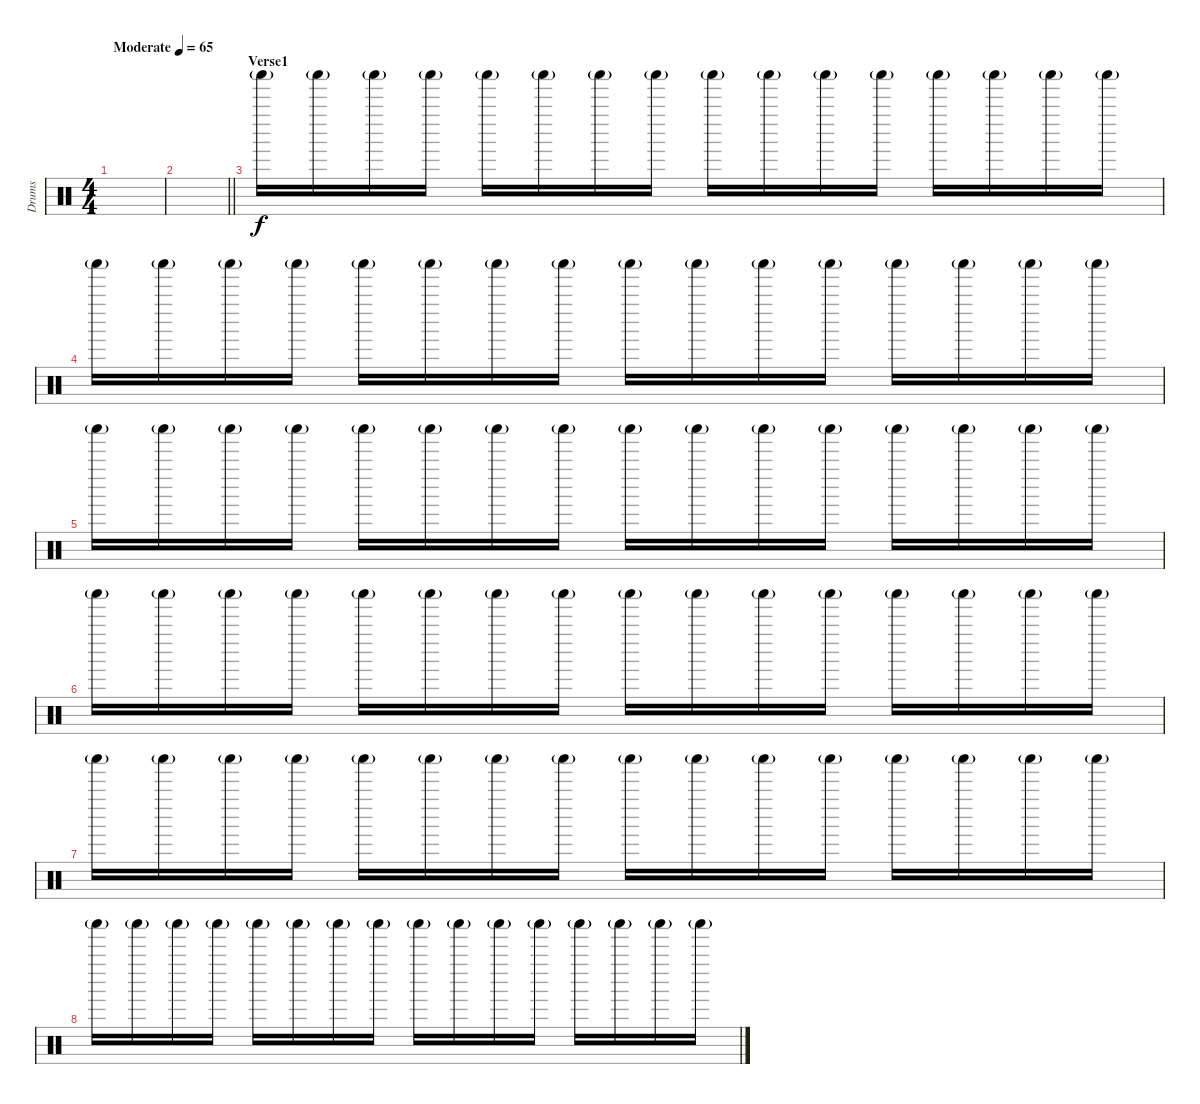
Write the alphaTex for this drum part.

\track ("Drums" "Drums") {instrument percussion}
\staff {score}
\articulation defaults
\ts (4 4)
\tempo (65 "Moderate")
\clef neutral
\ks c
|
\barLineRight lightlight
|
\section ("" "Verse1")
"Shaker (hit)"{g}.16 "Shaker (hit)"{g}.16 "Shaker (hit)"{g}.16 "Shaker (hit)"{g}.16 "Shaker (hit)"{g}.16 "Shaker (hit)"{g}.16 "Shaker (hit)"{g}.16 "Shaker (hit)"{g}.16 "Shaker (hit)"{g}.16 "Shaker (hit)"{g}.16 "Shaker (hit)"{g}.16 "Shaker (hit)"{g}.16 "Shaker (hit)"{g}.16 "Shaker (hit)"{g}.16 "Shaker (hit)"{g}.16 "Shaker (hit)"{g}.16 |
"Shaker (hit)"{g}.16 "Shaker (hit)"{g}.16 "Shaker (hit)"{g}.16 "Shaker (hit)"{g}.16 "Shaker (hit)"{g}.16 "Shaker (hit)"{g}.16 "Shaker (hit)"{g}.16 "Shaker (hit)"{g}.16 "Shaker (hit)"{g}.16 "Shaker (hit)"{g}.16 "Shaker (hit)"{g}.16 "Shaker (hit)"{g}.16 "Shaker (hit)"{g}.16 "Shaker (hit)"{g}.16 "Shaker (hit)"{g}.16 "Shaker (hit)"{g}.16 |
"Shaker (hit)"{g}.16 "Shaker (hit)"{g}.16 "Shaker (hit)"{g}.16 "Shaker (hit)"{g}.16 "Shaker (hit)"{g}.16 "Shaker (hit)"{g}.16 "Shaker (hit)"{g}.16 "Shaker (hit)"{g}.16 "Shaker (hit)"{g}.16 "Shaker (hit)"{g}.16 "Shaker (hit)"{g}.16 "Shaker (hit)"{g}.16 "Shaker (hit)"{g}.16 "Shaker (hit)"{g}.16 "Shaker (hit)"{g}.16 "Shaker (hit)"{g}.16 |
"Shaker (hit)"{g}.16 "Shaker (hit)"{g}.16 "Shaker (hit)"{g}.16 "Shaker (hit)"{g}.16 "Shaker (hit)"{g}.16 "Shaker (hit)"{g}.16 "Shaker (hit)"{g}.16 "Shaker (hit)"{g}.16 "Shaker (hit)"{g}.16 "Shaker (hit)"{g}.16 "Shaker (hit)"{g}.16 "Shaker (hit)"{g}.16 "Shaker (hit)"{g}.16 "Shaker (hit)"{g}.16 "Shaker (hit)"{g}.16 "Shaker (hit)"{g}.16 |
"Shaker (hit)"{g}.16 "Shaker (hit)"{g}.16 "Shaker (hit)"{g}.16 "Shaker (hit)"{g}.16 "Shaker (hit)"{g}.16 "Shaker (hit)"{g}.16 "Shaker (hit)"{g}.16 "Shaker (hit)"{g}.16 "Shaker (hit)"{g}.16 "Shaker (hit)"{g}.16 "Shaker (hit)"{g}.16 "Shaker (hit)"{g}.16 "Shaker (hit)"{g}.16 "Shaker (hit)"{g}.16 "Shaker (hit)"{g}.16 "Shaker (hit)"{g}.16 |
"Shaker (hit)"{g}.16 "Shaker (hit)"{g}.16 "Shaker (hit)"{g}.16 "Shaker (hit)"{g}.16 "Shaker (hit)"{g}.16 "Shaker (hit)"{g}.16 "Shaker (hit)"{g}.16 "Shaker (hit)"{g}.16 "Shaker (hit)"{g}.16 "Shaker (hit)"{g}.16 "Shaker (hit)"{g}.16 "Shaker (hit)"{g}.16 "Shaker (hit)"{g}.16 "Shaker (hit)"{g}.16 "Shaker (hit)"{g}.16 "Shaker (hit)"{g}.16
